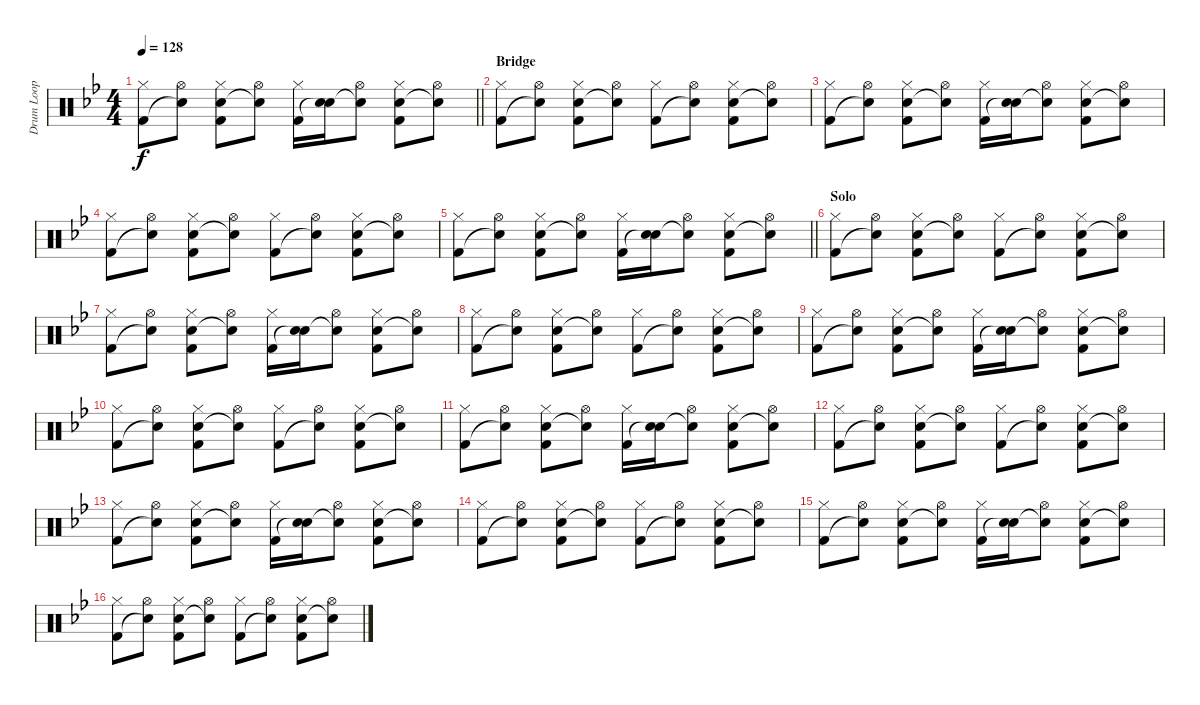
\track ("Drum Loop" "Drum Loop") {instrument percussion}
\staff {score}
\articulation defaults
\ts (4 4)
\tempo 128
\clef neutral
\barLineRight lightlight
\ks gminor
("Hi-Hat (closed)" "Kick (hit) 2").8{dy f} ("Hi-Hat (open)" "Snare (hit)"{t}).8 ("Hi-Hat (closed)" "Electric Snare (hit)" "Kick (hit) 2").8 ("Hi-Hat (open)" "Snare (hit)"{t}).8 ("Hi-Hat (closed)" "Kick (hit) 2").16 ("Electric Snare (hit)" "Snare (hit)"{t}).16 ("Hi-Hat (open)" "Snare (hit)"{t}).8 ("Hi-Hat (closed)" "Electric Snare (hit)" "Kick (hit) 2").8 ("Hi-Hat (open)" "Snare (hit)"{t}).8 |
\section ("" "Bridge")
("Hi-Hat (closed)" "Kick (hit) 2").8 ("Hi-Hat (open)" "Snare (hit)"{t}).8 ("Hi-Hat (closed)" "Electric Snare (hit)" "Kick (hit) 2").8 ("Hi-Hat (open)" "Snare (hit)"{t}).8 ("Hi-Hat (closed)" "Kick (hit) 2").8 ("Hi-Hat (open)" "Snare (hit)"{t}).8 ("Hi-Hat (closed)" "Electric Snare (hit)" "Kick (hit) 2").8 ("Hi-Hat (open)" "Snare (hit)"{t}).8 |
("Hi-Hat (closed)" "Kick (hit) 2").8 ("Hi-Hat (open)" "Snare (hit)"{t}).8 ("Hi-Hat (closed)" "Electric Snare (hit)" "Kick (hit) 2").8 ("Hi-Hat (open)" "Snare (hit)"{t}).8 ("Hi-Hat (closed)" "Kick (hit) 2").16 ("Electric Snare (hit)" "Snare (hit)"{t}).16 ("Hi-Hat (open)" "Snare (hit)"{t}).8 ("Hi-Hat (closed)" "Electric Snare (hit)" "Kick (hit) 2").8 ("Hi-Hat (open)" "Snare (hit)"{t}).8 |
("Hi-Hat (closed)" "Kick (hit) 2").8 ("Hi-Hat (open)" "Snare (hit)"{t}).8 ("Hi-Hat (closed)" "Electric Snare (hit)" "Kick (hit) 2").8 ("Hi-Hat (open)" "Snare (hit)"{t}).8 ("Hi-Hat (closed)" "Kick (hit) 2").8 ("Hi-Hat (open)" "Snare (hit)"{t}).8 ("Hi-Hat (closed)" "Electric Snare (hit)" "Kick (hit) 2").8 ("Hi-Hat (open)" "Snare (hit)"{t}).8 |
\barLineRight lightlight
("Hi-Hat (closed)" "Kick (hit) 2").8 ("Hi-Hat (open)" "Snare (hit)"{t}).8 ("Hi-Hat (closed)" "Electric Snare (hit)" "Kick (hit) 2").8 ("Hi-Hat (open)" "Snare (hit)"{t}).8 ("Hi-Hat (closed)" "Kick (hit) 2").16 ("Electric Snare (hit)" "Snare (hit)"{t}).16 ("Hi-Hat (open)" "Snare (hit)"{t}).8 ("Hi-Hat (closed)" "Electric Snare (hit)" "Kick (hit) 2").8 ("Hi-Hat (open)" "Snare (hit)"{t}).8 |
\section ("" "Solo")
("Hi-Hat (closed)" "Kick (hit) 2").8 ("Hi-Hat (open)" "Snare (hit)"{t}).8 ("Hi-Hat (closed)" "Electric Snare (hit)" "Kick (hit) 2").8 ("Hi-Hat (open)" "Snare (hit)"{t}).8 ("Hi-Hat (closed)" "Kick (hit) 2").8 ("Hi-Hat (open)" "Snare (hit)"{t}).8 ("Hi-Hat (closed)" "Electric Snare (hit)" "Kick (hit) 2").8 ("Hi-Hat (open)" "Snare (hit)"{t}).8 |
("Hi-Hat (closed)" "Kick (hit) 2").8 ("Hi-Hat (open)" "Snare (hit)"{t}).8 ("Hi-Hat (closed)" "Electric Snare (hit)" "Kick (hit) 2").8 ("Hi-Hat (open)" "Snare (hit)"{t}).8 ("Hi-Hat (closed)" "Kick (hit) 2").16 ("Electric Snare (hit)" "Snare (hit)"{t}).16 ("Hi-Hat (open)" "Snare (hit)"{t}).8 ("Hi-Hat (closed)" "Electric Snare (hit)" "Kick (hit) 2").8 ("Hi-Hat (open)" "Snare (hit)"{t}).8 |
("Hi-Hat (closed)" "Kick (hit) 2").8 ("Hi-Hat (open)" "Snare (hit)"{t}).8 ("Hi-Hat (closed)" "Electric Snare (hit)" "Kick (hit) 2").8 ("Hi-Hat (open)" "Snare (hit)"{t}).8 ("Hi-Hat (closed)" "Kick (hit) 2").8 ("Hi-Hat (open)" "Snare (hit)"{t}).8 ("Hi-Hat (closed)" "Electric Snare (hit)" "Kick (hit) 2").8 ("Hi-Hat (open)" "Snare (hit)"{t}).8 |
("Hi-Hat (closed)" "Kick (hit) 2").8 ("Hi-Hat (open)" "Snare (hit)"{t}).8 ("Hi-Hat (closed)" "Electric Snare (hit)" "Kick (hit) 2").8 ("Hi-Hat (open)" "Snare (hit)"{t}).8 ("Hi-Hat (closed)" "Kick (hit) 2").16 ("Electric Snare (hit)" "Snare (hit)"{t}).16 ("Hi-Hat (open)" "Snare (hit)"{t}).8 ("Hi-Hat (closed)" "Electric Snare (hit)" "Kick (hit) 2").8 ("Hi-Hat (open)" "Snare (hit)"{t}).8 |
("Hi-Hat (closed)" "Kick (hit) 2").8 ("Hi-Hat (open)" "Snare (hit)"{t}).8 ("Hi-Hat (closed)" "Electric Snare (hit)" "Kick (hit) 2").8 ("Hi-Hat (open)" "Snare (hit)"{t}).8 ("Hi-Hat (closed)" "Kick (hit) 2").8 ("Hi-Hat (open)" "Snare (hit)"{t}).8 ("Hi-Hat (closed)" "Electric Snare (hit)" "Kick (hit) 2").8 ("Hi-Hat (open)" "Snare (hit)"{t}).8 |
("Hi-Hat (closed)" "Kick (hit) 2").8 ("Hi-Hat (open)" "Snare (hit)"{t}).8 ("Hi-Hat (closed)" "Electric Snare (hit)" "Kick (hit) 2").8 ("Hi-Hat (open)" "Snare (hit)"{t}).8 ("Hi-Hat (closed)" "Kick (hit) 2").16 ("Electric Snare (hit)" "Snare (hit)"{t}).16 ("Hi-Hat (open)" "Snare (hit)"{t}).8 ("Hi-Hat (closed)" "Electric Snare (hit)" "Kick (hit) 2").8 ("Hi-Hat (open)" "Snare (hit)"{t}).8 |
("Hi-Hat (closed)" "Kick (hit) 2").8 ("Hi-Hat (open)" "Snare (hit)"{t}).8 ("Hi-Hat (closed)" "Electric Snare (hit)" "Kick (hit) 2").8 ("Hi-Hat (open)" "Snare (hit)"{t}).8 ("Hi-Hat (closed)" "Kick (hit) 2").8 ("Hi-Hat (open)" "Snare (hit)"{t}).8 ("Hi-Hat (closed)" "Electric Snare (hit)" "Kick (hit) 2").8 ("Hi-Hat (open)" "Snare (hit)"{t}).8 |
("Hi-Hat (closed)" "Kick (hit) 2").8 ("Hi-Hat (open)" "Snare (hit)"{t}).8 ("Hi-Hat (closed)" "Electric Snare (hit)" "Kick (hit) 2").8 ("Hi-Hat (open)" "Snare (hit)"{t}).8 ("Hi-Hat (closed)" "Kick (hit) 2").16 ("Electric Snare (hit)" "Snare (hit)"{t}).16 ("Hi-Hat (open)" "Snare (hit)"{t}).8 ("Hi-Hat (closed)" "Electric Snare (hit)" "Kick (hit) 2").8 ("Hi-Hat (open)" "Snare (hit)"{t}).8 |
("Hi-Hat (closed)" "Kick (hit) 2").8 ("Hi-Hat (open)" "Snare (hit)"{t}).8 ("Hi-Hat (closed)" "Electric Snare (hit)" "Kick (hit) 2").8 ("Hi-Hat (open)" "Snare (hit)"{t}).8 ("Hi-Hat (closed)" "Kick (hit) 2").8 ("Hi-Hat (open)" "Snare (hit)"{t}).8 ("Hi-Hat (closed)" "Electric Snare (hit)" "Kick (hit) 2").8 ("Hi-Hat (open)" "Snare (hit)"{t}).8 |
("Hi-Hat (closed)" "Kick (hit) 2").8 ("Hi-Hat (open)" "Snare (hit)"{t}).8 ("Hi-Hat (closed)" "Electric Snare (hit)" "Kick (hit) 2").8 ("Hi-Hat (open)" "Snare (hit)"{t}).8 ("Hi-Hat (closed)" "Kick (hit) 2").16 ("Electric Snare (hit)" "Snare (hit)"{t}).16 ("Hi-Hat (open)" "Snare (hit)"{t}).8 ("Hi-Hat (closed)" "Electric Snare (hit)" "Kick (hit) 2").8 ("Hi-Hat (open)" "Snare (hit)"{t}).8 |
("Hi-Hat (closed)" "Kick (hit) 2").8 ("Hi-Hat (open)" "Snare (hit)"{t}).8 ("Hi-Hat (closed)" "Electric Snare (hit)" "Kick (hit) 2").8 ("Hi-Hat (open)" "Snare (hit)"{t}).8 ("Hi-Hat (closed)" "Kick (hit) 2").8 ("Hi-Hat (open)" "Snare (hit)"{t}).8 ("Hi-Hat (closed)" "Electric Snare (hit)" "Kick (hit) 2").8 ("Hi-Hat (open)" "Snare (hit)"{t}).8
